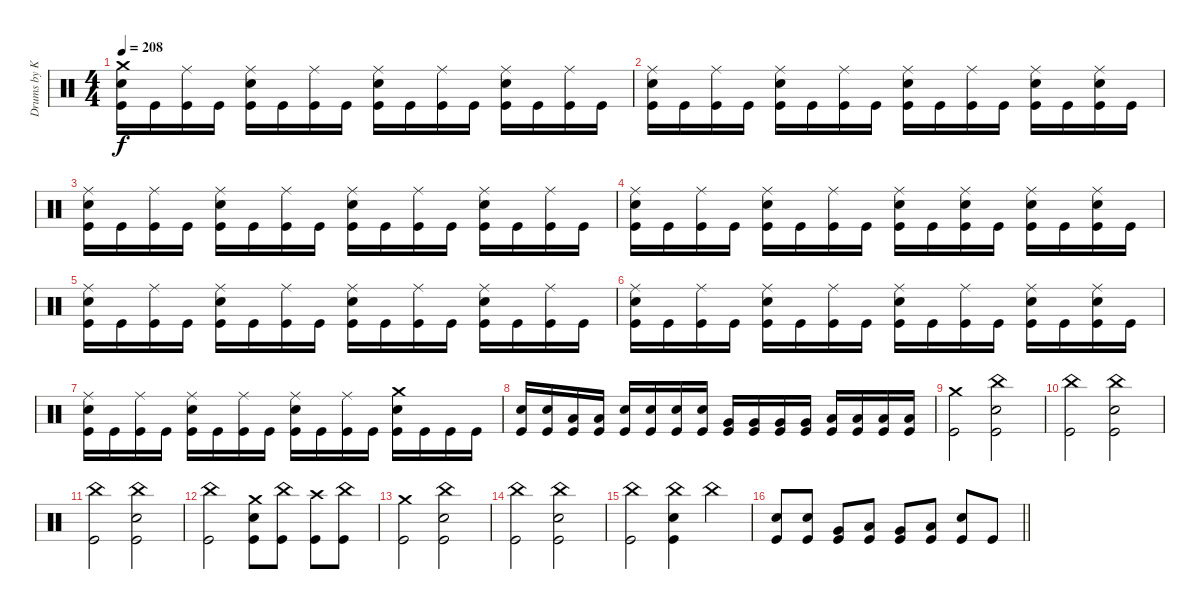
\track ("Drums by Kwonnie" "Drums by K") {instrument percussion}
\staff {score}
\articulation defaults
\ts (4 4)
\tempo 208
\clef neutral
\ks c
("Crash medium (hit)" "Electric Snare (hit)" "Kick (hit)").16{dy f volume 10} "Kick (hit)".16 ("Ride (middle)" "Kick (hit)").16 "Kick (hit)".16 ("Ride (middle)" "Electric Snare (hit)" "Kick (hit)").16 "Kick (hit)".16 ("Ride (middle)" "Kick (hit)").16 "Kick (hit)".16 ("Ride (middle)" "Electric Snare (hit)" "Kick (hit)").16 "Kick (hit)".16 ("Ride (middle)" "Kick (hit)").16 "Kick (hit)".16 ("Ride (middle)" "Electric Snare (hit)" "Kick (hit)").16 "Kick (hit)".16 ("Ride (middle)" "Kick (hit)").16 "Kick (hit)".16 |
("Ride (middle)" "Electric Snare (hit)" "Kick (hit)").16 "Kick (hit)".16 ("Ride (middle)" "Kick (hit)").16 "Kick (hit)".16 ("Ride (middle)" "Electric Snare (hit)" "Kick (hit)").16 "Kick (hit)".16 ("Ride (middle)" "Kick (hit)").16 "Kick (hit)".16 ("Ride (middle)" "Electric Snare (hit)" "Kick (hit)").16 "Kick (hit)".16 ("Ride (middle)" "Kick (hit)").16 "Kick (hit)".16 ("Ride (middle)" "Electric Snare (hit)" "Kick (hit)").16 "Kick (hit)".16 ("Ride (middle)" "Electric Snare (hit)" "Kick (hit)").16 "Kick (hit)".16 |
("Ride (middle)" "Electric Snare (hit)" "Kick (hit)").16 "Kick (hit)".16 ("Ride (middle)" "Kick (hit)").16 "Kick (hit)".16 ("Ride (middle)" "Electric Snare (hit)" "Kick (hit)").16 "Kick (hit)".16 ("Ride (middle)" "Kick (hit)").16 "Kick (hit)".16 ("Ride (middle)" "Electric Snare (hit)" "Kick (hit)").16 "Kick (hit)".16 ("Ride (middle)" "Kick (hit)").16 "Kick (hit)".16 ("Ride (middle)" "Electric Snare (hit)" "Kick (hit)").16 "Kick (hit)".16 ("Ride (middle)" "Kick (hit)").16 "Kick (hit)".16 |
("Ride (middle)" "Electric Snare (hit)" "Kick (hit)").16 "Kick (hit)".16 ("Ride (middle)" "Kick (hit)").16 "Kick (hit)".16 ("Ride (middle)" "Electric Snare (hit)" "Kick (hit)").16 "Kick (hit)".16 ("Ride (middle)" "Kick (hit)").16 "Kick (hit)".16 ("Ride (middle)" "Electric Snare (hit)" "Kick (hit)").16 "Kick (hit)".16 ("Ride (middle)" "Electric Snare (hit)" "Kick (hit)").16 "Kick (hit)".16 ("Ride (middle)" "Electric Snare (hit)" "Kick (hit)").16 "Kick (hit)".16 ("Ride (middle)" "Electric Snare (hit)" "Kick (hit)").16 "Kick (hit)".16 |
("Ride (middle)" "Electric Snare (hit)" "Kick (hit)").16 "Kick (hit)".16 ("Ride (middle)" "Kick (hit)").16 "Kick (hit)".16 ("Ride (middle)" "Electric Snare (hit)" "Kick (hit)").16 "Kick (hit)".16 ("Ride (middle)" "Kick (hit)").16 "Kick (hit)".16 ("Ride (middle)" "Electric Snare (hit)" "Kick (hit)").16 "Kick (hit)".16 ("Ride (middle)" "Kick (hit)").16 "Kick (hit)".16 ("Ride (middle)" "Electric Snare (hit)" "Kick (hit)").16 "Kick (hit)".16 ("Ride (middle)" "Kick (hit)").16 "Kick (hit)".16 |
("Ride (middle)" "Electric Snare (hit)" "Kick (hit)").16 "Kick (hit)".16 ("Ride (middle)" "Kick (hit)").16 "Kick (hit)".16 ("Ride (middle)" "Electric Snare (hit)" "Kick (hit)").16 "Kick (hit)".16 ("Ride (middle)" "Kick (hit)").16 "Kick (hit)".16 ("Ride (middle)" "Electric Snare (hit)" "Kick (hit)").16 "Kick (hit)".16 ("Ride (middle)" "Kick (hit)").16 "Kick (hit)".16 ("Ride (middle)" "Electric Snare (hit)" "Kick (hit)").16 "Kick (hit)".16 ("Ride (middle)" "Electric Snare (hit)" "Kick (hit)").16 "Kick (hit)".16 |
("Ride (middle)" "Electric Snare (hit)" "Kick (hit)").16 "Kick (hit)".16 ("Ride (middle)" "Kick (hit)").16 "Kick (hit)".16 ("Ride (middle)" "Electric Snare (hit)" "Kick (hit)").16 "Kick (hit)".16 ("Ride (middle)" "Kick (hit)").16 "Kick (hit)".16 ("Ride (middle)" "Electric Snare (hit)" "Kick (hit)").16 "Kick (hit)".16 ("Ride (middle)" "Kick (hit)").16 "Kick (hit)".16 ("Crash medium (hit)" "Electric Snare (hit)" "Kick (hit)").16 "Kick (hit)".16 "Kick (hit)".16 "Kick (hit)".16 |
("Electric Snare (hit)" "Kick (hit)").16 ("Electric Snare (hit)" "Kick (hit)").16 ("Low Tom (hit)" "Kick (hit)").16 ("Low Tom (hit)" "Kick (hit)").16 ("Electric Snare (hit)" "Kick (hit)").16 ("Electric Snare (hit)" "Kick (hit)").16 ("Electric Snare (hit)" "Kick (hit)").16 ("Electric Snare (hit)" "Kick (hit)").16 ("Very Low Tom (hit)" "Kick (hit)").16 ("Very Low Tom (hit)" "Kick (hit)").16 ("Very Low Tom (hit)" "Kick (hit)").16 ("Very Low Tom (hit)" "Kick (hit)").16 ("Low Floor Tom (hit)" "Kick (hit)").16 ("Low Floor Tom (hit)" "Kick (hit)").16 ("Low Floor Tom (hit)" "Kick (hit)").16 ("Low Floor Tom (hit)" "Kick (hit)").16 |
("Crash medium (hit)" "Kick (hit)").2 ("China (hit)" "Electric Snare (hit)" "Kick (hit)").2 |
("China (hit)" "Kick (hit)").2 ("China (hit)" "Electric Snare (hit)" "Kick (hit)").2 |
("China (hit)" "Kick (hit)").2 ("China (hit)" "Electric Snare (hit)" "Kick (hit)").2 |
("China (hit)" "Kick (hit)").2 ("Crash medium (hit)" "Electric Snare (hit)" "Kick (hit)").8 ("China (hit)" "Kick (hit)").8 ("Crash high (hit)" "Kick (hit)").8 ("China (hit)" "Kick (hit)").8 |
("Crash medium (hit)" "Kick (hit)").2 ("China (hit)" "Electric Snare (hit)" "Kick (hit)").2 |
("China (hit)" "Kick (hit)").2 ("China (hit)" "Electric Snare (hit)" "Kick (hit)").2 |
("China (hit)" "Kick (hit)").2 ("China (hit)" "Electric Snare (hit)" "Kick (hit)").4 "China (hit)".4 |
\barLineRight lightlight
("Electric Snare (hit)" "Kick (hit)").8 ("Electric Snare (hit)" "Kick (hit)").8 ("Very Low Tom (hit)" "Kick (hit)").8 ("Low Tom (hit)" "Kick (hit)").8 ("Very Low Tom (hit)" "Kick (hit)").8 ("Low Floor Tom (hit)" "Kick (hit)").8 ("Electric Snare (hit)" "Kick (hit)").8 "Kick (hit)".8
